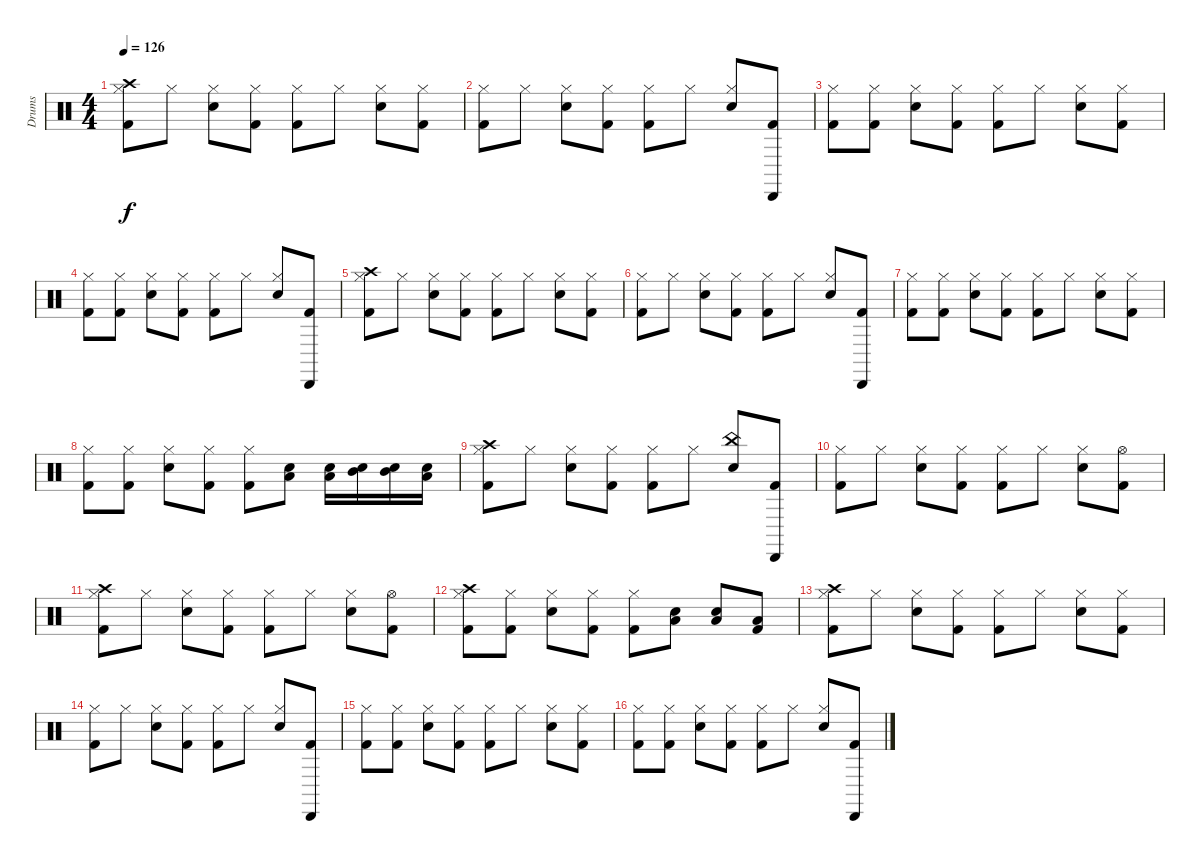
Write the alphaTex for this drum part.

\track ("Drums" "Drums") {instrument percussion}
\staff {score}
\articulation defaults
\ts (4 4)
\tempo 126
\clef neutral
\ks c
("Crash high (hit)" "Hi-Hat (closed)" "Kick (hit) 2").8{dy f} "Hi-Hat (closed)".8 ("Hi-Hat (closed)" "Snare (hit) 2").8 ("Hi-Hat (closed)" "Kick (hit) 2").8 ("Hi-Hat (closed)" "Kick (hit) 2").8 "Hi-Hat (closed)".8 ("Hi-Hat (closed)" "Snare (hit) 2").8 ("Hi-Hat (closed)" "Kick (hit) 2").8 |
("Hi-Hat (closed)" "Kick (hit) 2").8 "Hi-Hat (closed)".8 ("Hi-Hat (closed)" "Snare (hit) 2").8 ("Hi-Hat (closed)" "Kick (hit) 2").8 ("Hi-Hat (closed)" "Kick (hit) 2").8 "Hi-Hat (closed)".8 ("Hi-Hat (closed)" "Snare (hit) 2").8 ("Cabasa (hit)" "Kick (hit) 2").8 |
("Hi-Hat (closed)" "Kick (hit) 2").8 ("Hi-Hat (closed)" "Kick (hit) 2").8 ("Hi-Hat (closed)" "Snare (hit) 2").8 ("Hi-Hat (closed)" "Kick (hit) 2").8 ("Hi-Hat (closed)" "Kick (hit) 2").8 "Hi-Hat (closed)".8 ("Hi-Hat (closed)" "Snare (hit) 2").8 ("Hi-Hat (closed)" "Kick (hit) 2").8 |
("Hi-Hat (closed)" "Kick (hit) 2").8 ("Hi-Hat (closed)" "Kick (hit) 2").8 ("Hi-Hat (closed)" "Snare (hit) 2").8 ("Hi-Hat (closed)" "Kick (hit) 2").8 ("Hi-Hat (closed)" "Kick (hit) 2").8 "Hi-Hat (closed)".8 ("Hi-Hat (closed)" "Snare (hit) 2").8 ("Cabasa (hit)" "Kick (hit) 2").8 |
("Crash high (hit)" "Hi-Hat (closed)" "Kick (hit) 2").8 "Hi-Hat (closed)".8 ("Hi-Hat (closed)" "Snare (hit) 2").8 ("Hi-Hat (closed)" "Kick (hit) 2").8 ("Hi-Hat (closed)" "Kick (hit) 2").8 "Hi-Hat (closed)".8 ("Hi-Hat (closed)" "Snare (hit) 2").8 ("Hi-Hat (closed)" "Kick (hit) 2").8 |
("Hi-Hat (closed)" "Kick (hit) 2").8 "Hi-Hat (closed)".8 ("Hi-Hat (closed)" "Snare (hit) 2").8 ("Hi-Hat (closed)" "Kick (hit) 2").8 ("Hi-Hat (closed)" "Kick (hit) 2").8 "Hi-Hat (closed)".8 ("Hi-Hat (closed)" "Snare (hit) 2").8 ("Cabasa (hit)" "Kick (hit) 2").8 |
("Hi-Hat (closed)" "Kick (hit) 2").8 ("Hi-Hat (closed)" "Kick (hit) 2").8 ("Hi-Hat (closed)" "Snare (hit) 2").8 ("Hi-Hat (closed)" "Kick (hit) 2").8 ("Hi-Hat (closed)" "Kick (hit) 2").8 "Hi-Hat (closed)".8 ("Hi-Hat (closed)" "Snare (hit) 2").8 ("Hi-Hat (closed)" "Kick (hit) 2").8 |
("Hi-Hat (closed)" "Kick (hit) 2").8 ("Hi-Hat (closed)" "Kick (hit) 2").8 ("Hi-Hat (closed)" "Snare (hit) 2").8 ("Hi-Hat (closed)" "Kick (hit) 2").8 ("Hi-Hat (closed)" "Kick (hit) 2").8 ("Low Tom (hit)" "Snare (hit) 2").8 ("Low Tom (hit)" "Snare (hit) 2").16 ("Mid Tom (hit)" "Snare (hit) 2").16 ("Mid Tom (hit)" "Snare (hit) 2").16 ("Low Tom (hit)" "Snare (hit) 2").16 |
("Crash high (hit)" "Hi-Hat (closed)" "Kick (hit) 2").8 "Hi-Hat (closed)".8 ("Hi-Hat (closed)" "Snare (hit) 2").8 ("Hi-Hat (closed)" "Kick (hit) 2").8 ("Hi-Hat (closed)" "Kick (hit) 2").8 "Hi-Hat (closed)".8 ("China (hit)" "Snare (hit) 2").8 ("Cabasa (hit)" "Kick (hit) 2").8 |
("Hi-Hat (closed)" "Kick (hit) 2").8 "Hi-Hat (closed)".8 ("Hi-Hat (closed)" "Snare (hit) 2").8 ("Hi-Hat (closed)" "Kick (hit) 2").8 ("Hi-Hat (closed)" "Kick (hit) 2").8 "Hi-Hat (closed)".8 ("Hi-Hat (closed)" "Snare (hit) 2").8 ("Hi-Hat (open)" "Kick (hit) 2").8 |
("Crash high (hit)" "Hi-Hat (closed)" "Kick (hit) 2").8 "Hi-Hat (closed)".8 ("Hi-Hat (closed)" "Snare (hit) 2").8 ("Hi-Hat (closed)" "Kick (hit) 2").8 ("Hi-Hat (closed)" "Kick (hit) 2").8 "Hi-Hat (closed)".8 ("Hi-Hat (closed)" "Snare (hit) 2").8 ("Hi-Hat (open)" "Kick (hit) 2").8 |
("Crash high (hit)" "Hi-Hat (closed)" "Kick (hit) 2").8 ("Hi-Hat (closed)" "Kick (hit) 2").8 ("Hi-Hat (closed)" "Snare (hit) 2").8 ("Hi-Hat (closed)" "Kick (hit) 2").8 ("Hi-Hat (closed)" "Kick (hit) 2").8 ("Low Tom (hit)" "Snare (hit) 2").8 ("Low Tom (hit)" "Snare (hit) 2").8 ("Low Tom (hit)" "Kick (hit) 2").8 |
("Crash high (hit)" "Hi-Hat (closed)" "Kick (hit) 2").8 "Hi-Hat (closed)".8 ("Hi-Hat (closed)" "Snare (hit) 2").8 ("Hi-Hat (closed)" "Kick (hit) 2").8 ("Hi-Hat (closed)" "Kick (hit) 2").8 "Hi-Hat (closed)".8 ("Hi-Hat (closed)" "Snare (hit) 2").8 ("Hi-Hat (closed)" "Kick (hit) 2").8 |
("Hi-Hat (closed)" "Kick (hit) 2").8 "Hi-Hat (closed)".8 ("Hi-Hat (closed)" "Snare (hit) 2").8 ("Hi-Hat (closed)" "Kick (hit) 2").8 ("Hi-Hat (closed)" "Kick (hit) 2").8 "Hi-Hat (closed)".8 ("Hi-Hat (closed)" "Snare (hit) 2").8 ("Cabasa (hit)" "Kick (hit) 2").8 |
("Hi-Hat (closed)" "Kick (hit) 2").8 ("Hi-Hat (closed)" "Kick (hit) 2").8 ("Hi-Hat (closed)" "Snare (hit) 2").8 ("Hi-Hat (closed)" "Kick (hit) 2").8 ("Hi-Hat (closed)" "Kick (hit) 2").8 "Hi-Hat (closed)".8 ("Hi-Hat (closed)" "Snare (hit) 2").8 ("Hi-Hat (closed)" "Kick (hit) 2").8 |
("Hi-Hat (closed)" "Kick (hit) 2").8 ("Hi-Hat (closed)" "Kick (hit) 2").8 ("Hi-Hat (closed)" "Snare (hit) 2").8 ("Hi-Hat (closed)" "Kick (hit) 2").8 ("Hi-Hat (closed)" "Kick (hit) 2").8 "Hi-Hat (closed)".8 ("Hi-Hat (closed)" "Snare (hit) 2").8 ("Cabasa (hit)" "Kick (hit) 2").8
